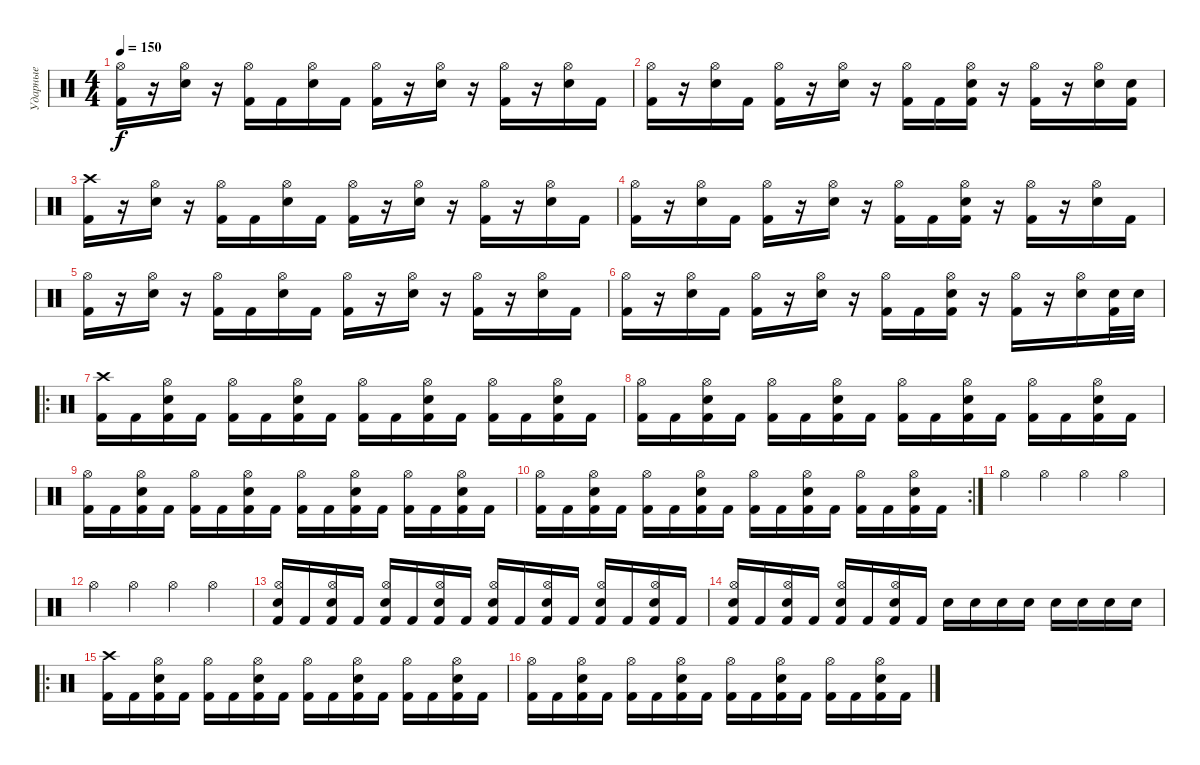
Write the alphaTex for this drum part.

\track ("Ударные" "Ударные") {instrument percussion}
\staff {score}
\articulation defaults
\ts (4 4)
\tempo 150
\clef neutral
\ks c
("Kick (hit) 2" "Hi-Hat (open)").16{dy f} r.16 ("Electric Snare (hit)" "Hi-Hat (open)").16 r.16 ("Kick (hit) 2" "Hi-Hat (open)").16 "Kick (hit) 2".16 ("Electric Snare (hit)" "Hi-Hat (open)").16 "Kick (hit) 2".16 ("Kick (hit) 2" "Hi-Hat (open)").16 r.16 ("Electric Snare (hit)" "Hi-Hat (open)").16 r.16 ("Kick (hit) 2" "Hi-Hat (open)").16 r.16 ("Electric Snare (hit)" "Hi-Hat (open)").16 "Kick (hit) 2".16 |
("Kick (hit) 2" "Hi-Hat (open)").16 r.16 ("Electric Snare (hit)" "Hi-Hat (open)").16 "Kick (hit) 2".16 ("Kick (hit) 2" "Hi-Hat (open)").16 r.16 ("Electric Snare (hit)" "Hi-Hat (open)").16 r.16 ("Kick (hit) 2" "Hi-Hat (open)").16 "Kick (hit) 2".16 ("Kick (hit) 2" "Electric Snare (hit)" "Hi-Hat (open)").16 r.16 ("Kick (hit) 2" "Hi-Hat (open)").16 r.16 ("Electric Snare (hit)" "Hi-Hat (open)").16 ("Kick (hit) 2" "Electric Snare (hit)").16 |
("Kick (hit) 2" "Crash high (hit)").16 r.16 ("Electric Snare (hit)" "Hi-Hat (open)").16 r.16 ("Kick (hit) 2" "Hi-Hat (open)").16 "Kick (hit) 2".16 ("Electric Snare (hit)" "Hi-Hat (open)").16 "Kick (hit) 2".16 ("Kick (hit) 2" "Hi-Hat (open)").16 r.16 ("Electric Snare (hit)" "Hi-Hat (open)").16 r.16 ("Kick (hit) 2" "Hi-Hat (open)").16 r.16 ("Electric Snare (hit)" "Hi-Hat (open)").16 "Kick (hit) 2".16 |
("Kick (hit) 2" "Hi-Hat (open)").16 r.16 ("Electric Snare (hit)" "Hi-Hat (open)").16 "Kick (hit) 2".16 ("Kick (hit) 2" "Hi-Hat (open)").16 r.16 ("Electric Snare (hit)" "Hi-Hat (open)").16 r.16 ("Kick (hit) 2" "Hi-Hat (open)").16 "Kick (hit) 2".16 ("Kick (hit) 2" "Electric Snare (hit)" "Hi-Hat (open)").16 r.16 ("Kick (hit) 2" "Hi-Hat (open)").16 r.16 ("Electric Snare (hit)" "Hi-Hat (open)").16 "Kick (hit) 2".16 |
("Kick (hit) 2" "Hi-Hat (open)").16 r.16 ("Electric Snare (hit)" "Hi-Hat (open)").16 r.16 ("Kick (hit) 2" "Hi-Hat (open)").16 "Kick (hit) 2".16 ("Electric Snare (hit)" "Hi-Hat (open)").16 "Kick (hit) 2".16 ("Kick (hit) 2" "Hi-Hat (open)").16 r.16 ("Electric Snare (hit)" "Hi-Hat (open)").16 r.16 ("Kick (hit) 2" "Hi-Hat (open)").16 r.16 ("Electric Snare (hit)" "Hi-Hat (open)").16 "Kick (hit) 2".16 |
("Kick (hit) 2" "Hi-Hat (open)").16 r.16 ("Electric Snare (hit)" "Hi-Hat (open)").16 "Kick (hit) 2".16 ("Kick (hit) 2" "Hi-Hat (open)").16 r.16 ("Electric Snare (hit)" "Hi-Hat (open)").16 r.16 ("Kick (hit) 2" "Hi-Hat (open)").16 "Kick (hit) 2".16 ("Kick (hit) 2" "Electric Snare (hit)" "Hi-Hat (open)").16 r.16 ("Kick (hit) 2" "Hi-Hat (open)").16 r.16 ("Electric Snare (hit)" "Hi-Hat (open)").16 ("Kick (hit) 2" "Electric Snare (hit)").32 "Electric Snare (hit)".32 |
\ro
("Kick (hit) 2" "Crash high (hit)").16 "Kick (hit) 2".16 ("Kick (hit) 2" "Electric Snare (hit)" "Hi-Hat (open)").16 "Kick (hit) 2".16 ("Kick (hit) 2" "Hi-Hat (open)").16 "Kick (hit) 2".16 ("Kick (hit) 2" "Electric Snare (hit)" "Hi-Hat (open)").16 "Kick (hit) 2".16 ("Kick (hit) 2" "Hi-Hat (open)").16 "Kick (hit) 2".16 ("Kick (hit) 2" "Electric Snare (hit)" "Hi-Hat (open)").16 "Kick (hit) 2".16 ("Kick (hit) 2" "Hi-Hat (open)").16 "Kick (hit) 2".16 ("Kick (hit) 2" "Electric Snare (hit)" "Hi-Hat (open)").16 "Kick (hit) 2".16 |
("Kick (hit) 2" "Hi-Hat (open)").16 "Kick (hit) 2".16 ("Kick (hit) 2" "Electric Snare (hit)" "Hi-Hat (open)").16 "Kick (hit) 2".16 ("Kick (hit) 2" "Hi-Hat (open)").16 "Kick (hit) 2".16 ("Kick (hit) 2" "Electric Snare (hit)" "Hi-Hat (open)").16 "Kick (hit) 2".16 ("Kick (hit) 2" "Hi-Hat (open)").16 "Kick (hit) 2".16 ("Kick (hit) 2" "Electric Snare (hit)" "Hi-Hat (open)").16 "Kick (hit) 2".16 ("Kick (hit) 2" "Hi-Hat (open)").16 "Kick (hit) 2".16 ("Kick (hit) 2" "Electric Snare (hit)" "Hi-Hat (open)").16 "Kick (hit) 2".16 |
("Kick (hit) 2" "Hi-Hat (open)").16 "Kick (hit) 2".16 ("Kick (hit) 2" "Electric Snare (hit)" "Hi-Hat (open)").16 "Kick (hit) 2".16 ("Kick (hit) 2" "Hi-Hat (open)").16 "Kick (hit) 2".16 ("Kick (hit) 2" "Electric Snare (hit)" "Hi-Hat (open)").16 "Kick (hit) 2".16 ("Kick (hit) 2" "Hi-Hat (open)").16 "Kick (hit) 2".16 ("Kick (hit) 2" "Electric Snare (hit)" "Hi-Hat (open)").16 "Kick (hit) 2".16 ("Kick (hit) 2" "Hi-Hat (open)").16 "Kick (hit) 2".16 ("Kick (hit) 2" "Electric Snare (hit)" "Hi-Hat (open)").16 "Kick (hit) 2".16 |
\rc 2
("Kick (hit) 2" "Hi-Hat (open)").16 "Kick (hit) 2".16 ("Kick (hit) 2" "Electric Snare (hit)" "Hi-Hat (open)").16 "Kick (hit) 2".16 ("Kick (hit) 2" "Hi-Hat (open)").16 "Kick (hit) 2".16 ("Kick (hit) 2" "Electric Snare (hit)" "Hi-Hat (open)").16 "Kick (hit) 2".16 ("Kick (hit) 2" "Hi-Hat (open)").16 "Kick (hit) 2".16 ("Kick (hit) 2" "Electric Snare (hit)" "Hi-Hat (open)").16 "Kick (hit) 2".16 ("Kick (hit) 2" "Hi-Hat (open)").16 "Kick (hit) 2".16 ("Kick (hit) 2" "Electric Snare (hit)" "Hi-Hat (open)").16 "Kick (hit) 2".16 |
"Hi-Hat (open)".4 "Hi-Hat (open)".4 "Hi-Hat (open)".4 "Hi-Hat (open)".4 |
"Hi-Hat (open)".4 "Hi-Hat (open)".4 "Hi-Hat (open)".4 "Hi-Hat (open)".4 |
("Hi-Hat (open)" "Kick (hit) 2" "Electric Snare (hit)").16 "Kick (hit) 2".16 ("Hi-Hat (open)" "Kick (hit) 2" "Electric Snare (hit)").16 "Kick (hit) 2".16 ("Hi-Hat (open)" "Kick (hit) 2" "Electric Snare (hit)").16 "Kick (hit) 2".16 ("Hi-Hat (open)" "Kick (hit) 2" "Electric Snare (hit)").16 "Kick (hit) 2".16 ("Hi-Hat (open)" "Kick (hit) 2" "Electric Snare (hit)").16 "Kick (hit) 2".16 ("Hi-Hat (open)" "Kick (hit) 2" "Electric Snare (hit)").16 "Kick (hit) 2".16 ("Hi-Hat (open)" "Kick (hit) 2" "Electric Snare (hit)").16 "Kick (hit) 2".16 ("Hi-Hat (open)" "Kick (hit) 2" "Electric Snare (hit)").16 "Kick (hit) 2".16 |
("Hi-Hat (open)" "Kick (hit) 2" "Electric Snare (hit)").16 "Kick (hit) 2".16 ("Hi-Hat (open)" "Kick (hit) 2" "Electric Snare (hit)").16 "Kick (hit) 2".16 ("Hi-Hat (open)" "Kick (hit) 2" "Electric Snare (hit)").16 "Kick (hit) 2".16 ("Hi-Hat (open)" "Kick (hit) 2" "Electric Snare (hit)").16 "Kick (hit) 2".16 "Electric Snare (hit)".16 "Electric Snare (hit)".16 "Electric Snare (hit)".16 "Electric Snare (hit)".16 "Electric Snare (hit)".16 "Electric Snare (hit)".16 "Electric Snare (hit)".16 "Electric Snare (hit)".16 |
\ro
("Kick (hit) 2" "Crash high (hit)").16 "Kick (hit) 2".16 ("Kick (hit) 2" "Electric Snare (hit)" "Hi-Hat (open)").16 "Kick (hit) 2".16 ("Kick (hit) 2" "Hi-Hat (open)").16 "Kick (hit) 2".16 ("Kick (hit) 2" "Electric Snare (hit)" "Hi-Hat (open)").16 "Kick (hit) 2".16 ("Kick (hit) 2" "Hi-Hat (open)").16 "Kick (hit) 2".16 ("Kick (hit) 2" "Electric Snare (hit)" "Hi-Hat (open)").16 "Kick (hit) 2".16 ("Kick (hit) 2" "Hi-Hat (open)").16 "Kick (hit) 2".16 ("Kick (hit) 2" "Electric Snare (hit)" "Hi-Hat (open)").16 "Kick (hit) 2".16 |
("Kick (hit) 2" "Hi-Hat (open)").16 "Kick (hit) 2".16 ("Kick (hit) 2" "Electric Snare (hit)" "Hi-Hat (open)").16 "Kick (hit) 2".16 ("Kick (hit) 2" "Hi-Hat (open)").16 "Kick (hit) 2".16 ("Kick (hit) 2" "Electric Snare (hit)" "Hi-Hat (open)").16 "Kick (hit) 2".16 ("Kick (hit) 2" "Hi-Hat (open)").16 "Kick (hit) 2".16 ("Kick (hit) 2" "Electric Snare (hit)" "Hi-Hat (open)").16 "Kick (hit) 2".16 ("Kick (hit) 2" "Hi-Hat (open)").16 "Kick (hit) 2".16 ("Kick (hit) 2" "Electric Snare (hit)" "Hi-Hat (open)").16 "Kick (hit) 2".16
